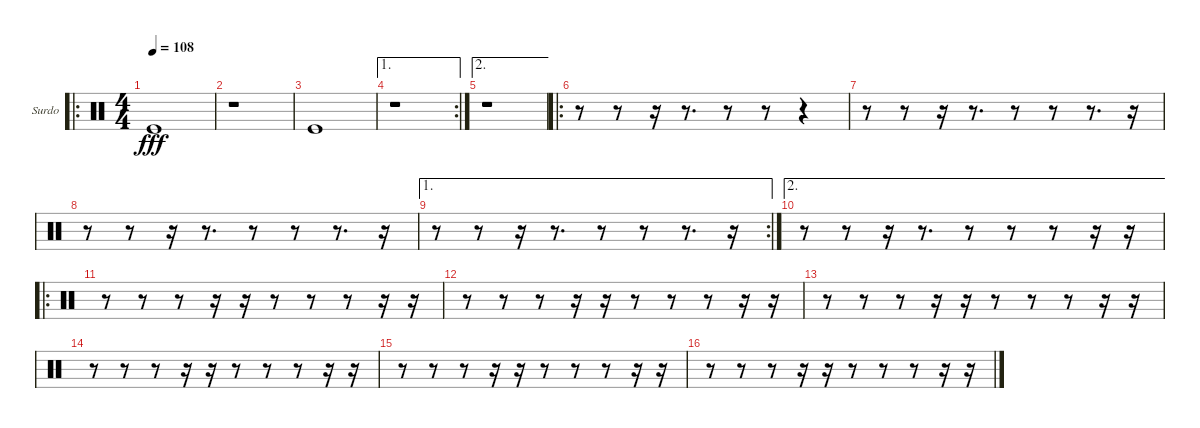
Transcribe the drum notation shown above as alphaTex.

\bracketExtendMode groupsimilarinstruments
\firstSystemTrackNameOrientation horizontal
\otherSystemsTrackNameOrientation horizontal
\track ("Surdo" "Surdo") {instrument percussion}
\staff {score}
\articulation defaults
\ro
\ts (4 4)
\tempo 108
\clef neutral
\ks c "Kick (hit)".1{dy fff}
|
r.1 |
"Kick (hit)".1 |
\ae 1
\rc 2
r.1 |
\ae 2
r.1 |
\ro
r.8 r.8 r.16 r.8{d} r.8 r.8 r.4 |
r.8 r.8 r.16 r.8{d} r.8 r.8 r.8{d} r.16 |
r.8 r.8 r.16 r.8{d} r.8 r.8 r.8{d} r.16 |
\ae 1
\rc 2
r.8 r.8 r.16 r.8{d} r.8 r.8 r.8{d} r.16 |
\ae 2
r.8 r.8 r.16 r.8{d} r.8 r.8 r.8 r.16 r.16 |
\ro
r.8 r.8 r.8 r.16 r.16 r.8 r.8 r.8 r.16 r.16 |
r.8 r.8 r.8 r.16 r.16 r.8 r.8 r.8 r.16 r.16 |
r.8 r.8 r.8 r.16 r.16 r.8 r.8 r.8 r.16 r.16 |
r.8 r.8 r.8 r.16 r.16 r.8 r.8 r.8 r.16 r.16 |
r.8 r.8 r.8 r.16 r.16 r.8 r.8 r.8 r.16 r.16 |
r.8 r.8 r.8 r.16 r.16 r.8 r.8 r.8 r.16 r.16
